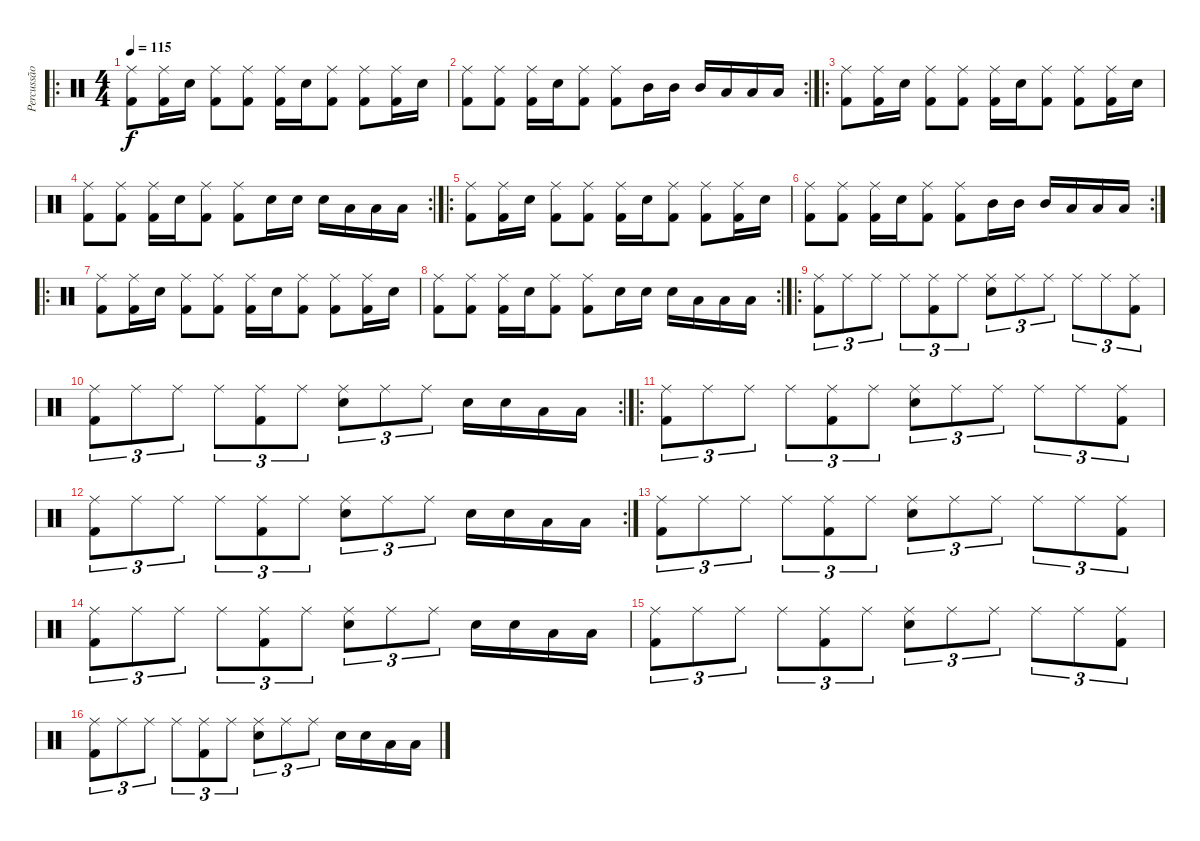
\track ("Percussão" "Percussão") {instrument percussion}
\staff {score}
\articulation defaults
\ro
\ts (4 4)
\tempo 115
\clef neutral
\ks c
("Ride (middle)" "Kick (hit) 2").8{dy f} ("Ride (middle)" "Kick (hit) 2").16 "Electric Snare (hit)".16 ("Ride (middle)" "Kick (hit) 2").8 ("Ride (middle)" "Kick (hit) 2").8 ("Ride (middle)" "Kick (hit) 2").16 "Electric Snare (hit)".16 ("Ride (middle)" "Kick (hit) 2").8 ("Ride (middle)" "Kick (hit) 2").8 ("Ride (middle)" "Kick (hit) 2").16 "Electric Snare (hit)".16 |
\rc 2
("Ride (middle)" "Kick (hit) 2").8 ("Ride (middle)" "Kick (hit) 2").8 ("Ride (middle)" "Kick (hit) 2").16 "Electric Snare (hit)".16 ("Ride (middle)" "Kick (hit) 2").8 ("Ride (middle)" "Kick (hit) 2").8 "Mid Tom (hit)".16 "Mid Tom (hit)".16 "Mid Tom (hit)".16 "Low Tom (hit)".16 "Low Tom (hit)".16 "Low Tom (hit)".16 |
\ro
("Ride (middle)" "Kick (hit) 2").8 ("Ride (middle)" "Kick (hit) 2").16 "Electric Snare (hit)".16 ("Ride (middle)" "Kick (hit) 2").8 ("Ride (middle)" "Kick (hit) 2").8 ("Ride (middle)" "Kick (hit) 2").16 "Electric Snare (hit)".16 ("Ride (middle)" "Kick (hit) 2").8 ("Ride (middle)" "Kick (hit) 2").8 ("Ride (middle)" "Kick (hit) 2").16 "Electric Snare (hit)".16 |
\rc 2
("Ride (middle)" "Kick (hit) 2").8 ("Ride (middle)" "Kick (hit) 2").8 ("Ride (middle)" "Kick (hit) 2").16 "Electric Snare (hit)".16 ("Ride (middle)" "Kick (hit) 2").8 ("Ride (middle)" "Kick (hit) 2").8 "Electric Snare (hit)".16 "Electric Snare (hit)".16 "Electric Snare (hit)".16 "Low Tom (hit)".16 "Low Tom (hit)".16 "Low Tom (hit)".16 |
\ro
("Ride (middle)" "Kick (hit) 2").8 ("Ride (middle)" "Kick (hit) 2").16 "Electric Snare (hit)".16 ("Ride (middle)" "Kick (hit) 2").8 ("Ride (middle)" "Kick (hit) 2").8 ("Ride (middle)" "Kick (hit) 2").16 "Electric Snare (hit)".16 ("Ride (middle)" "Kick (hit) 2").8 ("Ride (middle)" "Kick (hit) 2").8 ("Ride (middle)" "Kick (hit) 2").16 "Electric Snare (hit)".16 |
\rc 2
("Ride (middle)" "Kick (hit) 2").8 ("Ride (middle)" "Kick (hit) 2").8 ("Ride (middle)" "Kick (hit) 2").16 "Electric Snare (hit)".16 ("Ride (middle)" "Kick (hit) 2").8 ("Ride (middle)" "Kick (hit) 2").8 "Mid Tom (hit)".16 "Mid Tom (hit)".16 "Mid Tom (hit)".16 "Low Tom (hit)".16 "Low Tom (hit)".16 "Low Tom (hit)".16 |
\ro
("Ride (middle)" "Kick (hit) 2").8 ("Ride (middle)" "Kick (hit) 2").16 "Electric Snare (hit)".16 ("Ride (middle)" "Kick (hit) 2").8 ("Ride (middle)" "Kick (hit) 2").8 ("Ride (middle)" "Kick (hit) 2").16 "Electric Snare (hit)".16 ("Ride (middle)" "Kick (hit) 2").8 ("Ride (middle)" "Kick (hit) 2").8 ("Ride (middle)" "Kick (hit) 2").16 "Electric Snare (hit)".16 |
\rc 2
("Ride (middle)" "Kick (hit) 2").8 ("Ride (middle)" "Kick (hit) 2").8 ("Ride (middle)" "Kick (hit) 2").16 "Electric Snare (hit)".16 ("Ride (middle)" "Kick (hit) 2").8 ("Ride (middle)" "Kick (hit) 2").8 "Electric Snare (hit)".16 "Electric Snare (hit)".16 "Electric Snare (hit)".16 "Low Tom (hit)".16 "Low Tom (hit)".16 "Low Tom (hit)".16 |
\ro
("Ride (middle)" "Kick (hit) 2").8{tu (3 2)} "Ride (middle)".8{tu (3 2)} "Ride (middle)".8{tu (3 2)} "Ride (middle)".8{tu (3 2)} ("Ride (middle)" "Kick (hit) 2").8{tu (3 2)} "Ride (middle)".8{tu (3 2)} ("Ride (middle)" "Electric Snare (hit)").8{tu (3 2)} "Ride (middle)".8{tu (3 2)} "Ride (middle)".8{tu (3 2)} "Ride (middle)".8{tu (3 2)} "Ride (middle)".8{tu (3 2)} ("Ride (middle)" "Kick (hit) 2").8{tu (3 2)} |
\rc 2
("Ride (middle)" "Kick (hit) 2").8{tu (3 2)} "Ride (middle)".8{tu (3 2)} "Ride (middle)".8{tu (3 2)} "Ride (middle)".8{tu (3 2)} ("Ride (middle)" "Kick (hit) 2").8{tu (3 2)} "Ride (middle)".8{tu (3 2)} ("Ride (middle)" "Electric Snare (hit)").8{tu (3 2)} "Ride (middle)".8{tu (3 2)} "Ride (middle)".8{tu (3 2)} "Electric Snare (hit)".16 "Electric Snare (hit)".16 "Low Tom (hit)".16 "Low Tom (hit)".16 |
\ro
("Ride (middle)" "Kick (hit) 2").8{tu (3 2)} "Ride (middle)".8{tu (3 2)} "Ride (middle)".8{tu (3 2)} "Ride (middle)".8{tu (3 2)} ("Ride (middle)" "Kick (hit) 2").8{tu (3 2)} "Ride (middle)".8{tu (3 2)} ("Ride (middle)" "Electric Snare (hit)").8{tu (3 2)} "Ride (middle)".8{tu (3 2)} "Ride (middle)".8{tu (3 2)} "Ride (middle)".8{tu (3 2)} "Ride (middle)".8{tu (3 2)} ("Ride (middle)" "Kick (hit) 2").8{tu (3 2)} |
\rc 2
("Ride (middle)" "Kick (hit) 2").8{tu (3 2)} "Ride (middle)".8{tu (3 2)} "Ride (middle)".8{tu (3 2)} "Ride (middle)".8{tu (3 2)} ("Ride (middle)" "Kick (hit) 2").8{tu (3 2)} "Ride (middle)".8{tu (3 2)} ("Ride (middle)" "Electric Snare (hit)").8{tu (3 2)} "Ride (middle)".8{tu (3 2)} "Ride (middle)".8{tu (3 2)} "Electric Snare (hit)".16 "Electric Snare (hit)".16 "Low Tom (hit)".16 "Low Tom (hit)".16 |
("Ride (middle)" "Kick (hit) 2").8{tu (3 2)} "Ride (middle)".8{tu (3 2)} "Ride (middle)".8{tu (3 2)} "Ride (middle)".8{tu (3 2)} ("Ride (middle)" "Kick (hit) 2").8{tu (3 2)} "Ride (middle)".8{tu (3 2)} ("Ride (middle)" "Electric Snare (hit)").8{tu (3 2)} "Ride (middle)".8{tu (3 2)} "Ride (middle)".8{tu (3 2)} "Ride (middle)".8{tu (3 2)} "Ride (middle)".8{tu (3 2)} ("Ride (middle)" "Kick (hit) 2").8{tu (3 2)} |
("Ride (middle)" "Kick (hit) 2").8{tu (3 2)} "Ride (middle)".8{tu (3 2)} "Ride (middle)".8{tu (3 2)} "Ride (middle)".8{tu (3 2)} ("Ride (middle)" "Kick (hit) 2").8{tu (3 2)} "Ride (middle)".8{tu (3 2)} ("Ride (middle)" "Electric Snare (hit)").8{tu (3 2)} "Ride (middle)".8{tu (3 2)} "Ride (middle)".8{tu (3 2)} "Electric Snare (hit)".16 "Electric Snare (hit)".16 "Low Tom (hit)".16 "Low Tom (hit)".16 |
("Ride (middle)" "Kick (hit) 2").8{tu (3 2)} "Ride (middle)".8{tu (3 2)} "Ride (middle)".8{tu (3 2)} "Ride (middle)".8{tu (3 2)} ("Ride (middle)" "Kick (hit) 2").8{tu (3 2)} "Ride (middle)".8{tu (3 2)} ("Ride (middle)" "Electric Snare (hit)").8{tu (3 2)} "Ride (middle)".8{tu (3 2)} "Ride (middle)".8{tu (3 2)} "Ride (middle)".8{tu (3 2)} "Ride (middle)".8{tu (3 2)} ("Ride (middle)" "Kick (hit) 2").8{tu (3 2)} |
("Ride (middle)" "Kick (hit) 2").8{tu (3 2)} "Ride (middle)".8{tu (3 2)} "Ride (middle)".8{tu (3 2)} "Ride (middle)".8{tu (3 2)} ("Ride (middle)" "Kick (hit) 2").8{tu (3 2)} "Ride (middle)".8{tu (3 2)} ("Ride (middle)" "Electric Snare (hit)").8{tu (3 2)} "Ride (middle)".8{tu (3 2)} "Ride (middle)".8{tu (3 2)} "Electric Snare (hit)".16 "Electric Snare (hit)".16 "Low Tom (hit)".16 "Low Tom (hit)".16
